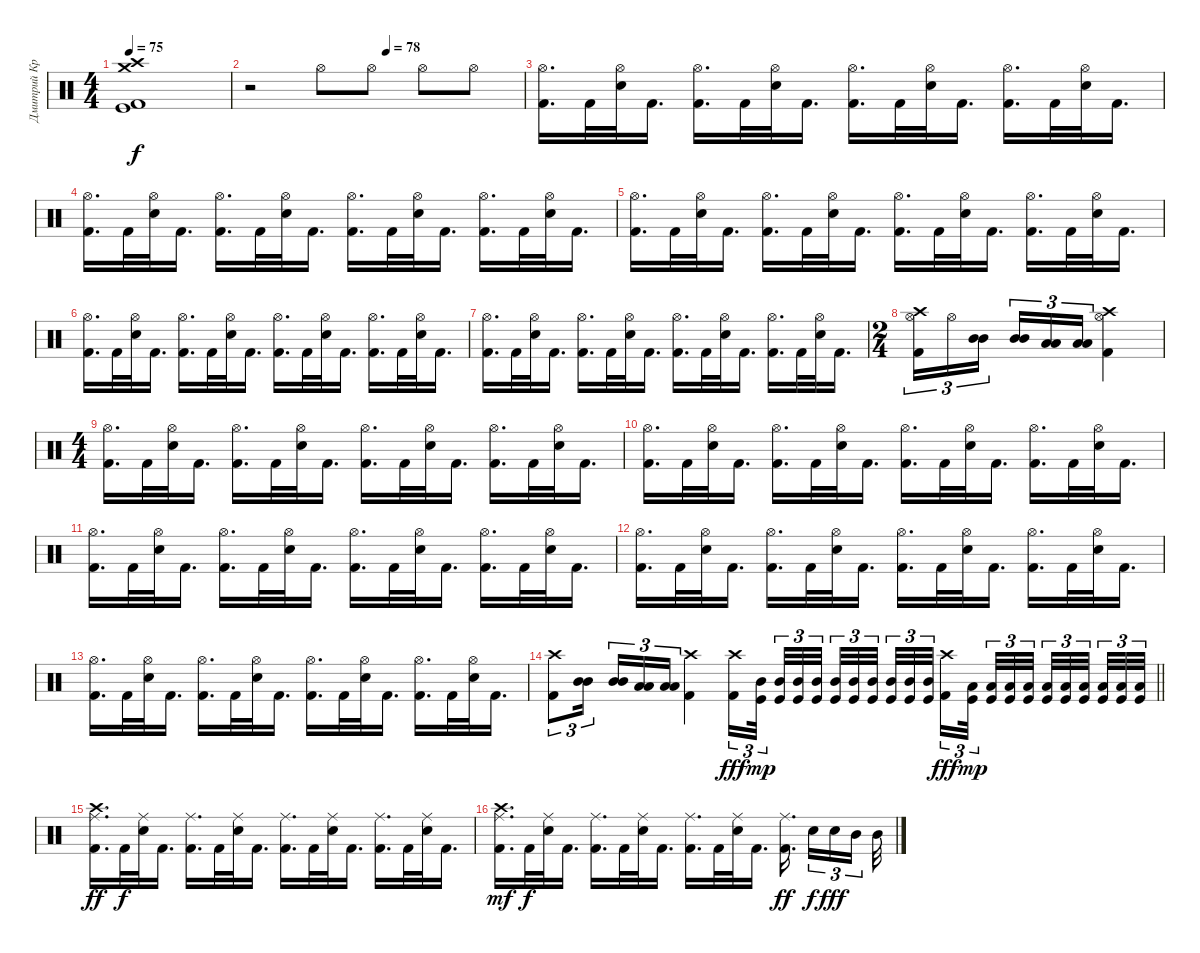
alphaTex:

\track ("Дмитрий Кривенков" "Дмитрий Кр") {instrument percussion}
\staff {score}
\articulation defaults
\ts (4 4)
\tempo 75
\clef neutral
\ks c
("Crash high (hit)" "Crash medium (hit)" "Kick (hit)" "Kick (hit) 2").1{dy f} |
\tempo (78 0.5)
r.2 "Hi-Hat (open)".8 "Hi-Hat (open)".8 "Hi-Hat (open)".8 "Hi-Hat (open)".8 |
("Hi-Hat (open)" "Kick (hit) 2").16{d} "Kick (hit) 2".32 ("Hi-Hat (open)" "Electric Snare (hit)").32 "Kick (hit) 2".16{d} ("Hi-Hat (open)" "Kick (hit) 2").16{d} "Kick (hit) 2".32 ("Hi-Hat (open)" "Electric Snare (hit)").32 "Kick (hit) 2".16{d} ("Hi-Hat (open)" "Kick (hit) 2").16{d} "Kick (hit) 2".32 ("Hi-Hat (open)" "Electric Snare (hit)").32 "Kick (hit) 2".16{d} ("Hi-Hat (open)" "Kick (hit) 2").16{d} "Kick (hit) 2".32 ("Hi-Hat (open)" "Electric Snare (hit)").32 "Kick (hit) 2".16{d} |
("Hi-Hat (open)" "Kick (hit) 2").16{d} "Kick (hit) 2".32 ("Hi-Hat (open)" "Electric Snare (hit)").32 "Kick (hit) 2".16{d} ("Hi-Hat (open)" "Kick (hit) 2").16{d} "Kick (hit) 2".32 ("Hi-Hat (open)" "Electric Snare (hit)").32 "Kick (hit) 2".16{d} ("Hi-Hat (open)" "Kick (hit) 2").16{d} "Kick (hit) 2".32 ("Hi-Hat (open)" "Electric Snare (hit)").32 "Kick (hit) 2".16{d} ("Hi-Hat (open)" "Kick (hit) 2").16{d} "Kick (hit) 2".32 ("Hi-Hat (open)" "Electric Snare (hit)").32 "Kick (hit) 2".16{d} |
("Hi-Hat (open)" "Kick (hit) 2").16{d} "Kick (hit) 2".32 ("Hi-Hat (open)" "Electric Snare (hit)").32 "Kick (hit) 2".16{d} ("Hi-Hat (open)" "Kick (hit) 2").16{d} "Kick (hit) 2".32 ("Hi-Hat (open)" "Electric Snare (hit)").32 "Kick (hit) 2".16{d} ("Hi-Hat (open)" "Kick (hit) 2").16{d} "Kick (hit) 2".32 ("Hi-Hat (open)" "Electric Snare (hit)").32 "Kick (hit) 2".16{d} ("Hi-Hat (open)" "Kick (hit) 2").16{d} "Kick (hit) 2".32 ("Hi-Hat (open)" "Electric Snare (hit)").32 "Kick (hit) 2".16{d} |
("Hi-Hat (open)" "Kick (hit) 2").16{d} "Kick (hit) 2".32 ("Hi-Hat (open)" "Electric Snare (hit)").32 "Kick (hit) 2".16{d} ("Hi-Hat (open)" "Kick (hit) 2").16{d} "Kick (hit) 2".32 ("Hi-Hat (open)" "Electric Snare (hit)").32 "Kick (hit) 2".16{d} ("Hi-Hat (open)" "Kick (hit) 2").16{d} "Kick (hit) 2".32 ("Hi-Hat (open)" "Electric Snare (hit)").32 "Kick (hit) 2".16{d} ("Hi-Hat (open)" "Kick (hit) 2").16{d} "Kick (hit) 2".32 ("Hi-Hat (open)" "Electric Snare (hit)").32 "Kick (hit) 2".16{d} |
("Hi-Hat (open)" "Kick (hit) 2").16{d} "Kick (hit) 2".32 ("Hi-Hat (open)" "Electric Snare (hit)").32 "Kick (hit) 2".16{d} ("Hi-Hat (open)" "Kick (hit) 2").16{d} "Kick (hit) 2".32 ("Hi-Hat (open)" "Electric Snare (hit)").32 "Kick (hit) 2".16{d} ("Hi-Hat (open)" "Kick (hit) 2").16{d} "Kick (hit) 2".32 ("Hi-Hat (open)" "Electric Snare (hit)").32 "Kick (hit) 2".16{d} ("Hi-Hat (open)" "Kick (hit) 2").16{d} "Kick (hit) 2".32 ("Hi-Hat (open)" "Electric Snare (hit)").32 "Kick (hit) 2".16{d} |
\ts (2 4)
("Crash high (hit)" "Hi-Hat (open)" "Kick (hit) 2").16{tu (3 2)} "Hi-Hat (open)".16{tu (3 2)} ("Mid Tom (hit)" "Mid Tom (hit)").16{tu (3 2) beam splitsecondary} ("Mid Tom (hit)" "Mid Tom (hit)").16{tu (3 2)} ("Low Tom (hit)" "Low Tom (hit)").16{tu (3 2)} ("Low Tom (hit)" "Low Tom (hit)").16{tu (3 2)} ("Crash high (hit)" "Hi-Hat (open)" "Kick (hit) 2").4 |
\ts (4 4)
("Hi-Hat (open)" "Kick (hit) 2").16{d} "Kick (hit) 2".32 ("Hi-Hat (open)" "Electric Snare (hit)").32 "Kick (hit) 2".16{d} ("Hi-Hat (open)" "Kick (hit) 2").16{d} "Kick (hit) 2".32 ("Hi-Hat (open)" "Electric Snare (hit)").32 "Kick (hit) 2".16{d} ("Hi-Hat (open)" "Kick (hit) 2").16{d} "Kick (hit) 2".32 ("Hi-Hat (open)" "Electric Snare (hit)").32 "Kick (hit) 2".16{d} ("Hi-Hat (open)" "Kick (hit) 2").16{d} "Kick (hit) 2".32 ("Hi-Hat (open)" "Electric Snare (hit)").32 "Kick (hit) 2".16{d} |
("Hi-Hat (open)" "Kick (hit) 2").16{d} "Kick (hit) 2".32 ("Hi-Hat (open)" "Electric Snare (hit)").32 "Kick (hit) 2".16{d} ("Hi-Hat (open)" "Kick (hit) 2").16{d} "Kick (hit) 2".32 ("Hi-Hat (open)" "Electric Snare (hit)").32 "Kick (hit) 2".16{d} ("Hi-Hat (open)" "Kick (hit) 2").16{d} "Kick (hit) 2".32 ("Hi-Hat (open)" "Electric Snare (hit)").32 "Kick (hit) 2".16{d} ("Hi-Hat (open)" "Kick (hit) 2").16{d} "Kick (hit) 2".32 ("Hi-Hat (open)" "Electric Snare (hit)").32 "Kick (hit) 2".16{d} |
("Hi-Hat (open)" "Kick (hit) 2").16{d} "Kick (hit) 2".32 ("Hi-Hat (open)" "Electric Snare (hit)").32 "Kick (hit) 2".16{d} ("Hi-Hat (open)" "Kick (hit) 2").16{d} "Kick (hit) 2".32 ("Hi-Hat (open)" "Electric Snare (hit)").32 "Kick (hit) 2".16{d} ("Hi-Hat (open)" "Kick (hit) 2").16{d} "Kick (hit) 2".32 ("Hi-Hat (open)" "Electric Snare (hit)").32 "Kick (hit) 2".16{d} ("Hi-Hat (open)" "Kick (hit) 2").16{d} "Kick (hit) 2".32 ("Hi-Hat (open)" "Electric Snare (hit)").32 "Kick (hit) 2".16{d} |
("Hi-Hat (open)" "Kick (hit) 2").16{d} "Kick (hit) 2".32 ("Hi-Hat (open)" "Electric Snare (hit)").32 "Kick (hit) 2".16{d} ("Hi-Hat (open)" "Kick (hit) 2").16{d} "Kick (hit) 2".32 ("Hi-Hat (open)" "Electric Snare (hit)").32 "Kick (hit) 2".16{d} ("Hi-Hat (open)" "Kick (hit) 2").16{d} "Kick (hit) 2".32 ("Hi-Hat (open)" "Electric Snare (hit)").32 "Kick (hit) 2".16{d} ("Hi-Hat (open)" "Kick (hit) 2").16{d} "Kick (hit) 2".32 ("Hi-Hat (open)" "Electric Snare (hit)").32 "Kick (hit) 2".16{d} |
("Hi-Hat (open)" "Kick (hit) 2").16{d} "Kick (hit) 2".32 ("Hi-Hat (open)" "Electric Snare (hit)").32 "Kick (hit) 2".16{d} ("Hi-Hat (open)" "Kick (hit) 2").16{d} "Kick (hit) 2".32 ("Hi-Hat (open)" "Electric Snare (hit)").32 "Kick (hit) 2".16{d} ("Hi-Hat (open)" "Kick (hit) 2").16{d} "Kick (hit) 2".32 ("Hi-Hat (open)" "Electric Snare (hit)").32 "Kick (hit) 2".16{d} ("Hi-Hat (open)" "Kick (hit) 2").16{d} "Kick (hit) 2".32 ("Hi-Hat (open)" "Electric Snare (hit)").32 "Kick (hit) 2".16{d} |
\barLineRight lightlight
("Crash high (hit)" "Kick (hit) 2").8{tu (3 2)} ("Mid Tom (hit)" "Mid Tom (hit)").16{tu (3 2) beam splitsecondary} ("Mid Tom (hit)" "Mid Tom (hit)").16{tu (3 2)} ("Low Tom (hit)" "Low Tom (hit)").16{tu (3 2)} ("Low Tom (hit)" "Low Tom (hit)").16{tu (3 2)} ("Crash high (hit)" "Kick (hit) 2").4 ("Crash high (hit)" "Kick (hit) 2").16{tu (3 2) dy fff volume 16} ("Mid Tom (hit)" "Kick (hit)").32{tu (3 2) dy mp beam splitsecondary} ("Mid Tom (hit)" "Kick (hit)").32{tu (3 2)} ("Mid Tom (hit)" "Kick (hit)").32{tu (3 2)} ("Mid Tom (hit)" "Kick (hit)").32{tu (3 2) beam splitsecondary} ("Mid Tom (hit)" "Kick (hit)").32{tu (3 2)} ("Mid Tom (hit)" "Kick (hit)").32{tu (3 2)} ("Mid Tom (hit)" "Kick (hit)").32{tu (3 2) beam splitsecondary} ("Mid Tom (hit)" "Kick (hit)").32{tu (3 2)} ("Mid Tom (hit)" "Kick (hit)").32{tu (3 2)} ("Mid Tom (hit)" "Kick (hit)").32{tu (3 2)} ("Crash high (hit)" "Kick (hit) 2").16{tu (3 2) dy fff} ("Low Tom (hit)" "Kick (hit)").32{tu (3 2) dy mp beam splitsecondary} ("Low Tom (hit)" "Kick (hit)").32{tu (3 2)} ("Low Tom (hit)" "Kick (hit)").32{tu (3 2)} ("Low Tom (hit)" "Kick (hit)").32{tu (3 2) beam splitsecondary} ("Low Tom (hit)" "Kick (hit)").32{tu (3 2)} ("Low Tom (hit)" "Kick (hit)").32{tu (3 2)} ("Low Tom (hit)" "Kick (hit)").32{tu (3 2) beam splitsecondary} ("Low Tom (hit)" "Kick (hit)").32{tu (3 2)} ("Low Tom (hit)" "Kick (hit)").32{tu (3 2)} ("Low Tom (hit)" "Kick (hit)").32{tu (3 2)} |
("Ride (middle)" "Crash high (hit)" "Kick (hit) 2").16{d dy ff volume 13} "Kick (hit) 2".32{dy f} ("Ride (middle)" "Electric Snare (hit)").32 "Kick (hit) 2".16{d} ("Ride (middle)" "Kick (hit) 2").16{d} "Kick (hit) 2".32 ("Ride (middle)" "Electric Snare (hit)").32 "Kick (hit) 2".16{d} ("Ride (middle)" "Kick (hit) 2").16{d} "Kick (hit) 2".32 ("Ride (middle)" "Electric Snare (hit)").32 "Kick (hit) 2".16{d} ("Ride (middle)" "Kick (hit) 2").16{d} "Kick (hit) 2".32 ("Ride (middle)" "Electric Snare (hit)").32 "Kick (hit) 2".16{d} |
("Ride (middle)" "Crash high (hit)" "Kick (hit) 2").16{d dy mf} "Kick (hit) 2".32{dy f} ("Ride (middle)" "Electric Snare (hit)").32 "Kick (hit) 2".16{d} ("Ride (middle)" "Kick (hit) 2").16{d} "Kick (hit) 2".32 ("Ride (middle)" "Electric Snare (hit)").32 "Kick (hit) 2".16{d} ("Ride (middle)" "Kick (hit) 2").16{d} "Kick (hit) 2".32 ("Ride (middle)" "Electric Snare (hit)").32 "Kick (hit) 2".16{d} ("Ride (middle)" "Kick (hit) 2").16{d dy ff beam splitsecondary} "Electric Snare (hit)".16{tu (3 2) dy f} "Electric Snare (hit)".16{tu (3 2) dy fff} "Mid Tom (hit)".16{tu (3 2) beam splitsecondary} "Mid Tom (hit)".32
